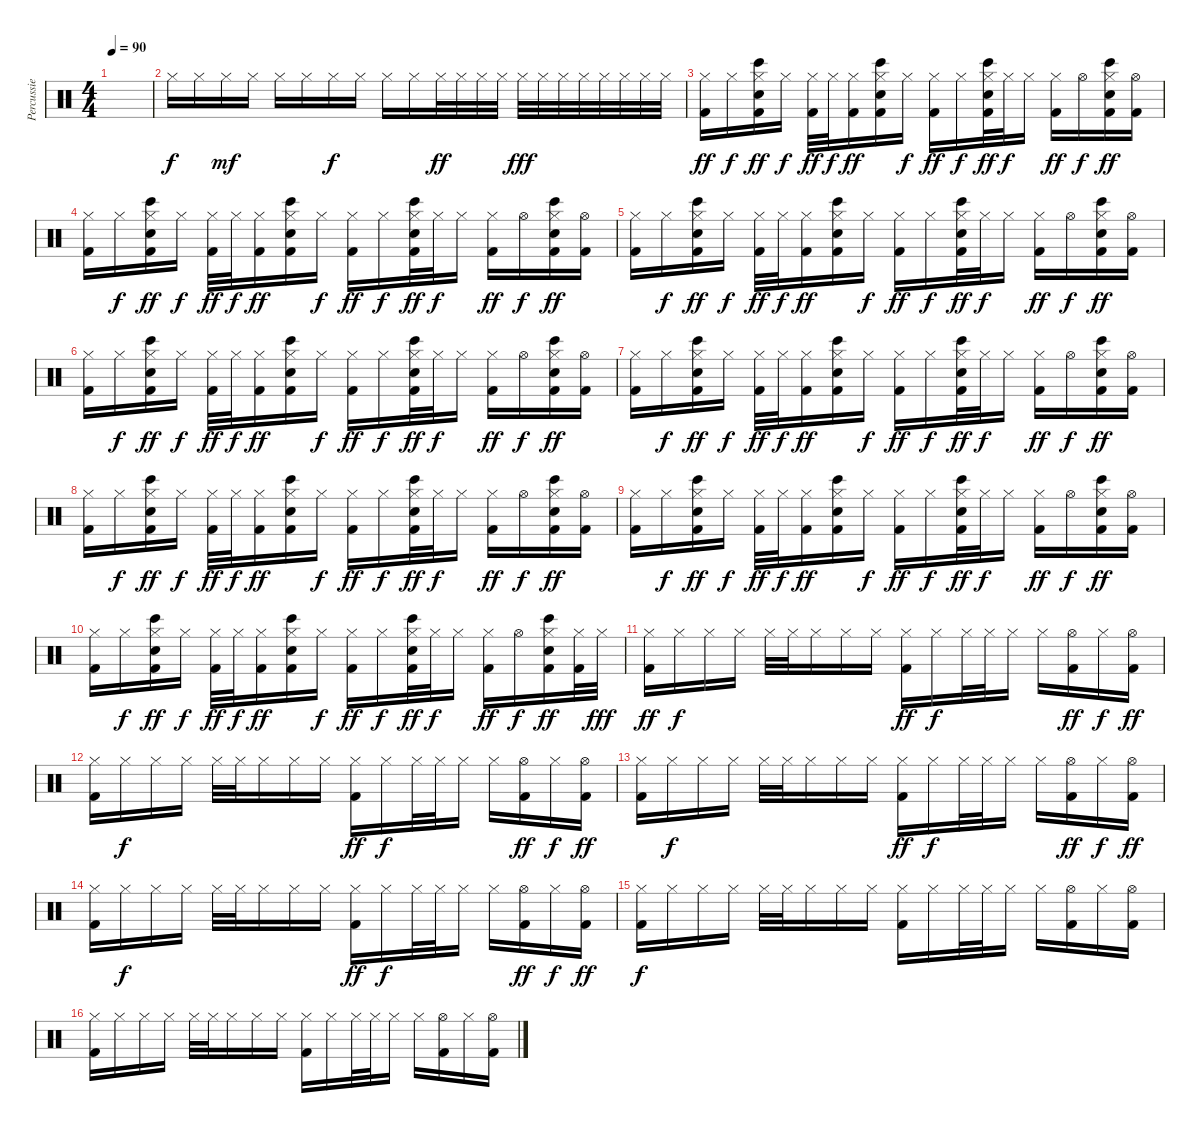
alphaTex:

\track ("Percussie" "Percussie") {instrument percussion}
\staff {score}
\articulation defaults
\ts (4 4)
\tempo 90
\clef neutral
\ks c
|
"Hi-Hat (closed)".16 "Hi-Hat (closed)".16 "Hi-Hat (closed)".16{dy mf} "Hi-Hat (closed)".16 "Hi-Hat (closed)".16 "Hi-Hat (closed)".16 "Hi-Hat (closed)".16{dy f} "Hi-Hat (closed)".16 "Hi-Hat (closed)".16 "Hi-Hat (closed)".16 "Hi-Hat (closed)".32{dy ff} "Hi-Hat (closed)".32 "Hi-Hat (closed)".32 "Hi-Hat (closed)".32 "Hi-Hat (closed)".32{dy fff} "Hi-Hat (closed)".32 "Hi-Hat (closed)".32 "Hi-Hat (closed)".32 "Hi-Hat (closed)".32 "Hi-Hat (closed)".32 "Hi-Hat (closed)".32 "Hi-Hat (closed)".32 |
("Hi-Hat (closed)" "Kick (hit) 2").16{dy ff} "Hi-Hat (closed)".16{dy f} ("Hi-Hat (closed)" "Electric Snare (hit)" "Bongo High (hit)" "Kick (hit) 2").16{dy ff} "Hi-Hat (closed)".16{dy f} ("Hi-Hat (closed)" "Kick (hit) 2").32{dy ff} "Hi-Hat (closed)".32{dy f} ("Hi-Hat (closed)" "Kick (hit) 2").16{dy ff} ("Hi-Hat (closed)" "Electric Snare (hit)" "Bongo High (hit)" "Kick (hit) 2").16 "Hi-Hat (closed)".16{dy f} ("Hi-Hat (closed)" "Kick (hit) 2").16{dy ff} "Hi-Hat (closed)".16{dy f} ("Hi-Hat (closed)" "Electric Snare (hit)" "Bongo High (hit)" "Kick (hit) 2").32{dy ff} "Hi-Hat (closed)".32{dy f} "Hi-Hat (closed)".16 ("Hi-Hat (closed)" "Kick (hit) 2").16{dy ff} "Hi-Hat (open)".16{dy f} ("Hi-Hat (closed)" "Electric Snare (hit)" "Bongo High (hit)" "Kick (hit) 2").16{dy ff} ("Hi-Hat (open)" "Kick (hit) 2").16 |
("Hi-Hat (closed)" "Kick (hit) 2").16 "Hi-Hat (closed)".16{dy f} ("Hi-Hat (closed)" "Electric Snare (hit)" "Bongo High (hit)" "Kick (hit) 2").16{dy ff} "Hi-Hat (closed)".16{dy f} ("Hi-Hat (closed)" "Kick (hit) 2").32{dy ff} "Hi-Hat (closed)".32{dy f} ("Hi-Hat (closed)" "Kick (hit) 2").16{dy ff} ("Hi-Hat (closed)" "Electric Snare (hit)" "Bongo High (hit)" "Kick (hit) 2").16 "Hi-Hat (closed)".16{dy f} ("Hi-Hat (closed)" "Kick (hit) 2").16{dy ff} "Hi-Hat (closed)".16{dy f} ("Hi-Hat (closed)" "Electric Snare (hit)" "Bongo High (hit)" "Kick (hit) 2").32{dy ff} "Hi-Hat (closed)".32{dy f} "Hi-Hat (closed)".16 ("Hi-Hat (closed)" "Kick (hit) 2").16{dy ff} "Hi-Hat (open)".16{dy f} ("Hi-Hat (closed)" "Electric Snare (hit)" "Bongo High (hit)" "Kick (hit) 2").16{dy ff} ("Hi-Hat (open)" "Kick (hit) 2").16 |
("Hi-Hat (closed)" "Kick (hit) 2").16 "Hi-Hat (closed)".16{dy f} ("Hi-Hat (closed)" "Electric Snare (hit)" "Bongo High (hit)" "Kick (hit) 2").16{dy ff} "Hi-Hat (closed)".16{dy f} ("Hi-Hat (closed)" "Kick (hit) 2").32{dy ff} "Hi-Hat (closed)".32{dy f} ("Hi-Hat (closed)" "Kick (hit) 2").16{dy ff} ("Hi-Hat (closed)" "Electric Snare (hit)" "Bongo High (hit)" "Kick (hit) 2").16 "Hi-Hat (closed)".16{dy f} ("Hi-Hat (closed)" "Kick (hit) 2").16{dy ff} "Hi-Hat (closed)".16{dy f} ("Hi-Hat (closed)" "Electric Snare (hit)" "Bongo High (hit)" "Kick (hit) 2").32{dy ff} "Hi-Hat (closed)".32{dy f} "Hi-Hat (closed)".16 ("Hi-Hat (closed)" "Kick (hit) 2").16{dy ff} "Hi-Hat (open)".16{dy f} ("Hi-Hat (closed)" "Electric Snare (hit)" "Bongo High (hit)" "Kick (hit) 2").16{dy ff} ("Hi-Hat (open)" "Kick (hit) 2").16 |
("Hi-Hat (closed)" "Kick (hit) 2").16 "Hi-Hat (closed)".16{dy f} ("Hi-Hat (closed)" "Electric Snare (hit)" "Bongo High (hit)" "Kick (hit) 2").16{dy ff} "Hi-Hat (closed)".16{dy f} ("Hi-Hat (closed)" "Kick (hit) 2").32{dy ff} "Hi-Hat (closed)".32{dy f} ("Hi-Hat (closed)" "Kick (hit) 2").16{dy ff} ("Hi-Hat (closed)" "Electric Snare (hit)" "Bongo High (hit)" "Kick (hit) 2").16 "Hi-Hat (closed)".16{dy f} ("Hi-Hat (closed)" "Kick (hit) 2").16{dy ff} "Hi-Hat (closed)".16{dy f} ("Hi-Hat (closed)" "Electric Snare (hit)" "Bongo High (hit)" "Kick (hit) 2").32{dy ff} "Hi-Hat (closed)".32{dy f} "Hi-Hat (closed)".16 ("Hi-Hat (closed)" "Kick (hit) 2").16{dy ff} "Hi-Hat (open)".16{dy f} ("Hi-Hat (closed)" "Electric Snare (hit)" "Bongo High (hit)" "Kick (hit) 2").16{dy ff} ("Hi-Hat (open)" "Kick (hit) 2").16 |
("Hi-Hat (closed)" "Kick (hit) 2").16 "Hi-Hat (closed)".16{dy f} ("Hi-Hat (closed)" "Electric Snare (hit)" "Bongo High (hit)" "Kick (hit) 2").16{dy ff} "Hi-Hat (closed)".16{dy f} ("Hi-Hat (closed)" "Kick (hit) 2").32{dy ff} "Hi-Hat (closed)".32{dy f} ("Hi-Hat (closed)" "Kick (hit) 2").16{dy ff} ("Hi-Hat (closed)" "Electric Snare (hit)" "Bongo High (hit)" "Kick (hit) 2").16 "Hi-Hat (closed)".16{dy f} ("Hi-Hat (closed)" "Kick (hit) 2").16{dy ff} "Hi-Hat (closed)".16{dy f} ("Hi-Hat (closed)" "Electric Snare (hit)" "Bongo High (hit)" "Kick (hit) 2").32{dy ff} "Hi-Hat (closed)".32{dy f} "Hi-Hat (closed)".16 ("Hi-Hat (closed)" "Kick (hit) 2").16{dy ff} "Hi-Hat (open)".16{dy f} ("Hi-Hat (closed)" "Electric Snare (hit)" "Bongo High (hit)" "Kick (hit) 2").16{dy ff} ("Hi-Hat (open)" "Kick (hit) 2").16 |
("Hi-Hat (closed)" "Kick (hit) 2").16 "Hi-Hat (closed)".16{dy f} ("Hi-Hat (closed)" "Electric Snare (hit)" "Bongo High (hit)" "Kick (hit) 2").16{dy ff} "Hi-Hat (closed)".16{dy f} ("Hi-Hat (closed)" "Kick (hit) 2").32{dy ff} "Hi-Hat (closed)".32{dy f} ("Hi-Hat (closed)" "Kick (hit) 2").16{dy ff} ("Hi-Hat (closed)" "Electric Snare (hit)" "Bongo High (hit)" "Kick (hit) 2").16 "Hi-Hat (closed)".16{dy f} ("Hi-Hat (closed)" "Kick (hit) 2").16{dy ff} "Hi-Hat (closed)".16{dy f} ("Hi-Hat (closed)" "Electric Snare (hit)" "Bongo High (hit)" "Kick (hit) 2").32{dy ff} "Hi-Hat (closed)".32{dy f} "Hi-Hat (closed)".16 ("Hi-Hat (closed)" "Kick (hit) 2").16{dy ff} "Hi-Hat (open)".16{dy f} ("Hi-Hat (closed)" "Electric Snare (hit)" "Bongo High (hit)" "Kick (hit) 2").16{dy ff} ("Hi-Hat (open)" "Kick (hit) 2").16 |
("Hi-Hat (closed)" "Kick (hit) 2").16 "Hi-Hat (closed)".16{dy f} ("Hi-Hat (closed)" "Electric Snare (hit)" "Bongo High (hit)" "Kick (hit) 2").16{dy ff} "Hi-Hat (closed)".16{dy f} ("Hi-Hat (closed)" "Kick (hit) 2").32{dy ff} "Hi-Hat (closed)".32{dy f} ("Hi-Hat (closed)" "Kick (hit) 2").16{dy ff} ("Hi-Hat (closed)" "Electric Snare (hit)" "Bongo High (hit)" "Kick (hit) 2").16 "Hi-Hat (closed)".16{dy f} ("Hi-Hat (closed)" "Kick (hit) 2").16{dy ff} "Hi-Hat (closed)".16{dy f} ("Hi-Hat (closed)" "Electric Snare (hit)" "Bongo High (hit)" "Kick (hit) 2").32{dy ff} "Hi-Hat (closed)".32{dy f} "Hi-Hat (closed)".16 ("Hi-Hat (closed)" "Kick (hit) 2").16{dy ff} "Hi-Hat (open)".16{dy f} ("Hi-Hat (closed)" "Electric Snare (hit)" "Bongo High (hit)" "Kick (hit) 2").16{dy ff} ("Hi-Hat (open)" "Kick (hit) 2").16 |
("Hi-Hat (closed)" "Kick (hit) 2").16 "Hi-Hat (closed)".16{dy f} ("Hi-Hat (closed)" "Electric Snare (hit)" "Bongo High (hit)" "Kick (hit) 2").16{dy ff} "Hi-Hat (closed)".16{dy f} ("Hi-Hat (closed)" "Kick (hit) 2").32{dy ff} "Hi-Hat (closed)".32{dy f} ("Hi-Hat (closed)" "Kick (hit) 2").16{dy ff} ("Hi-Hat (closed)" "Electric Snare (hit)" "Bongo High (hit)" "Kick (hit) 2").16 "Hi-Hat (closed)".16{dy f} ("Hi-Hat (closed)" "Kick (hit) 2").16{dy ff} "Hi-Hat (closed)".16{dy f} ("Hi-Hat (closed)" "Electric Snare (hit)" "Bongo High (hit)" "Kick (hit) 2").32{dy ff} "Hi-Hat (closed)".32{dy f} "Hi-Hat (closed)".16 ("Hi-Hat (closed)" "Kick (hit) 2").16{dy ff} "Hi-Hat (open)".16{dy f} ("Hi-Hat (closed)" "Electric Snare (hit)" "Bongo High (hit)" "Kick (hit) 2").16{dy ff} ("Hi-Hat (closed)" "Kick (hit) 2").32 "Hi-Hat (closed)".32{dy fff} |
("Hi-Hat (closed)" "Kick (hit) 2").16{dy ff} "Hi-Hat (closed)".16{dy f} "Hi-Hat (closed)".16 "Hi-Hat (closed)".16 "Hi-Hat (closed)".32 "Hi-Hat (closed)".32 "Hi-Hat (closed)".16 "Hi-Hat (closed)".16 "Hi-Hat (closed)".16 ("Hi-Hat (closed)" "Kick (hit) 2").16{dy ff} "Hi-Hat (closed)".16{dy f} "Hi-Hat (closed)".32 "Hi-Hat (closed)".32 "Hi-Hat (closed)".16 "Hi-Hat (closed)".16 ("Hi-Hat (open)" "Kick (hit) 2").16{dy ff} "Hi-Hat (closed)".16{dy f} ("Hi-Hat (open)" "Kick (hit) 2").16{dy ff} |
("Hi-Hat (closed)" "Kick (hit) 2").16 "Hi-Hat (closed)".16{dy f} "Hi-Hat (closed)".16 "Hi-Hat (closed)".16 "Hi-Hat (closed)".32 "Hi-Hat (closed)".32 "Hi-Hat (closed)".16 "Hi-Hat (closed)".16 "Hi-Hat (closed)".16 ("Hi-Hat (closed)" "Kick (hit) 2").16{dy ff} "Hi-Hat (closed)".16{dy f} "Hi-Hat (closed)".32 "Hi-Hat (closed)".32 "Hi-Hat (closed)".16 "Hi-Hat (closed)".16 ("Hi-Hat (open)" "Kick (hit) 2").16{dy ff} "Hi-Hat (closed)".16{dy f} ("Hi-Hat (open)" "Kick (hit) 2").16{dy ff} |
("Hi-Hat (closed)" "Kick (hit) 2").16 "Hi-Hat (closed)".16{dy f} "Hi-Hat (closed)".16 "Hi-Hat (closed)".16 "Hi-Hat (closed)".32 "Hi-Hat (closed)".32 "Hi-Hat (closed)".16 "Hi-Hat (closed)".16 "Hi-Hat (closed)".16 ("Hi-Hat (closed)" "Kick (hit) 2").16{dy ff} "Hi-Hat (closed)".16{dy f} "Hi-Hat (closed)".32 "Hi-Hat (closed)".32 "Hi-Hat (closed)".16 "Hi-Hat (closed)".16 ("Hi-Hat (open)" "Kick (hit) 2").16{dy ff} "Hi-Hat (closed)".16{dy f} ("Hi-Hat (open)" "Kick (hit) 2").16{dy ff} |
("Hi-Hat (closed)" "Kick (hit) 2").16 "Hi-Hat (closed)".16{dy f} "Hi-Hat (closed)".16 "Hi-Hat (closed)".16 "Hi-Hat (closed)".32 "Hi-Hat (closed)".32 "Hi-Hat (closed)".16 "Hi-Hat (closed)".16 "Hi-Hat (closed)".16 ("Hi-Hat (closed)" "Kick (hit) 2").16{dy ff} "Hi-Hat (closed)".16{dy f} "Hi-Hat (closed)".32 "Hi-Hat (closed)".32 "Hi-Hat (closed)".16 "Hi-Hat (closed)".16 ("Hi-Hat (open)" "Kick (hit) 2").16{dy ff} "Hi-Hat (closed)".16{dy f} ("Hi-Hat (open)" "Kick (hit) 2").16{dy ff} |
("Hi-Hat (closed)" "Kick (hit) 2").16{dy f} "Hi-Hat (closed)".16 "Hi-Hat (closed)".16 "Hi-Hat (closed)".16 "Hi-Hat (closed)".32 "Hi-Hat (closed)".32 "Hi-Hat (closed)".16 "Hi-Hat (closed)".16 "Hi-Hat (closed)".16 ("Hi-Hat (closed)" "Kick (hit) 2").16 "Hi-Hat (closed)".16 "Hi-Hat (closed)".32 "Hi-Hat (closed)".32 "Hi-Hat (closed)".16 "Hi-Hat (closed)".16 ("Hi-Hat (open)" "Kick (hit) 2").16 "Hi-Hat (closed)".16 ("Hi-Hat (open)" "Kick (hit) 2").16 |
("Hi-Hat (closed)" "Kick (hit) 2").16 "Hi-Hat (closed)".16 "Hi-Hat (closed)".16 "Hi-Hat (closed)".16 "Hi-Hat (closed)".32 "Hi-Hat (closed)".32 "Hi-Hat (closed)".16 "Hi-Hat (closed)".16 "Hi-Hat (closed)".16 ("Hi-Hat (closed)" "Kick (hit) 2").16 "Hi-Hat (closed)".16 "Hi-Hat (closed)".32 "Hi-Hat (closed)".32 "Hi-Hat (closed)".16 "Hi-Hat (closed)".16 ("Hi-Hat (open)" "Kick (hit) 2").16 "Hi-Hat (closed)".16 ("Hi-Hat (open)" "Kick (hit) 2").16
